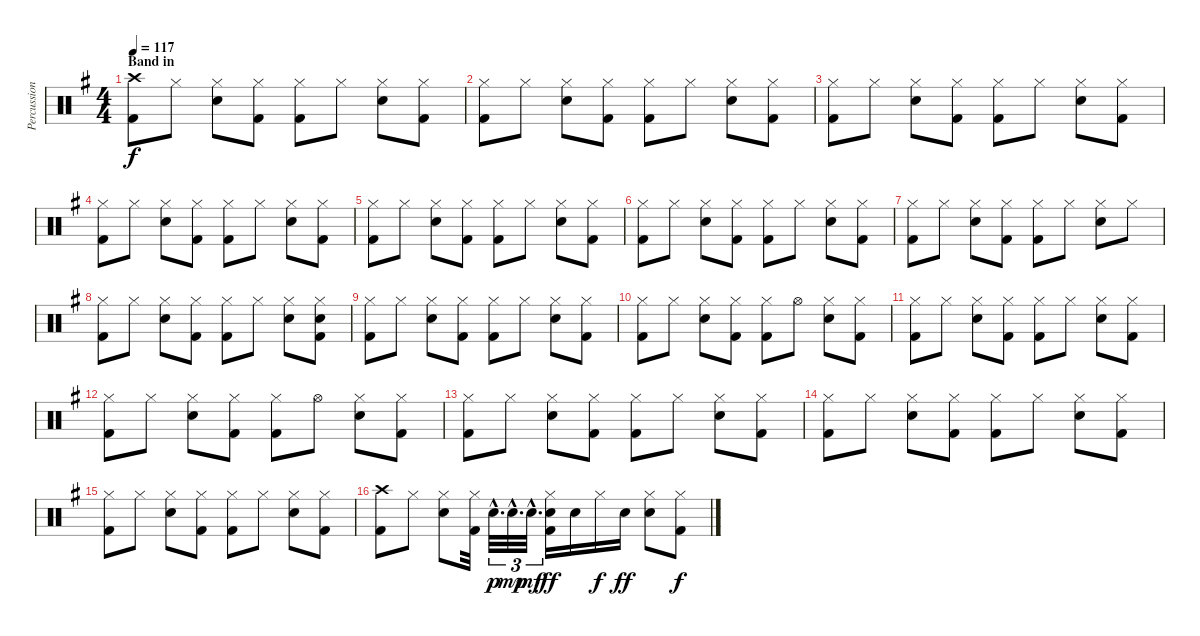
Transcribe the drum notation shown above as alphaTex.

\track ("Percussion" "Percussion") {instrument percussion}
\staff {score}
\articulation defaults
\ts (4 4)
\section ("" "Band in")
\tempo 117
\clef neutral
\ks g
("Crash high (hit)" "Kick (hit) 2").8{dy f} "Hi-Hat (closed)".8 ("Hi-Hat (closed)" "Electric Snare (hit)").8 ("Hi-Hat (closed)" "Kick (hit) 2").8 ("Hi-Hat (closed)" "Kick (hit) 2").8 "Hi-Hat (closed)".8 ("Hi-Hat (closed)" "Electric Snare (hit)").8 ("Hi-Hat (closed)" "Kick (hit) 2").8 |
("Hi-Hat (closed)" "Kick (hit) 2").8 "Hi-Hat (closed)".8 ("Hi-Hat (closed)" "Electric Snare (hit)").8 ("Hi-Hat (closed)" "Kick (hit) 2").8 ("Hi-Hat (closed)" "Kick (hit) 2").8 "Hi-Hat (closed)".8 ("Hi-Hat (closed)" "Electric Snare (hit)").8 ("Hi-Hat (closed)" "Kick (hit) 2").8 |
("Hi-Hat (closed)" "Kick (hit) 2").8 "Hi-Hat (closed)".8 ("Hi-Hat (closed)" "Electric Snare (hit)").8 ("Hi-Hat (closed)" "Kick (hit) 2").8 ("Hi-Hat (closed)" "Kick (hit) 2").8 "Hi-Hat (closed)".8 ("Hi-Hat (closed)" "Electric Snare (hit)").8 ("Hi-Hat (closed)" "Kick (hit) 2").8 |
("Hi-Hat (closed)" "Kick (hit) 2").8 "Hi-Hat (closed)".8 ("Hi-Hat (closed)" "Electric Snare (hit)").8 ("Hi-Hat (closed)" "Kick (hit) 2").8 ("Hi-Hat (closed)" "Kick (hit) 2").8 "Hi-Hat (closed)".8 ("Hi-Hat (closed)" "Electric Snare (hit)").8 ("Hi-Hat (closed)" "Kick (hit) 2").8 |
("Hi-Hat (closed)" "Kick (hit) 2").8 "Hi-Hat (closed)".8 ("Hi-Hat (closed)" "Electric Snare (hit)").8 ("Hi-Hat (closed)" "Kick (hit) 2").8 ("Hi-Hat (closed)" "Kick (hit) 2").8 "Hi-Hat (closed)".8 ("Hi-Hat (closed)" "Electric Snare (hit)").8 ("Hi-Hat (closed)" "Kick (hit) 2").8 |
("Hi-Hat (closed)" "Kick (hit) 2").8 "Hi-Hat (closed)".8 ("Hi-Hat (closed)" "Electric Snare (hit)").8 ("Hi-Hat (closed)" "Kick (hit) 2").8 ("Hi-Hat (closed)" "Kick (hit) 2").8 "Hi-Hat (closed)".8 ("Hi-Hat (closed)" "Electric Snare (hit)").8 ("Hi-Hat (closed)" "Kick (hit) 2").8 |
("Hi-Hat (closed)" "Kick (hit) 2").8 "Hi-Hat (closed)".8 ("Hi-Hat (closed)" "Electric Snare (hit)").8 ("Hi-Hat (closed)" "Kick (hit) 2").8 ("Hi-Hat (closed)" "Kick (hit) 2").8 "Hi-Hat (closed)".8 ("Hi-Hat (closed)" "Electric Snare (hit)").8 "Hi-Hat (closed)".8 |
("Hi-Hat (closed)" "Kick (hit) 2").8 "Hi-Hat (closed)".8 ("Hi-Hat (closed)" "Electric Snare (hit)").8 ("Hi-Hat (closed)" "Kick (hit) 2").8 ("Hi-Hat (closed)" "Kick (hit) 2").8 "Hi-Hat (closed)".8 ("Hi-Hat (closed)" "Electric Snare (hit)").8 ("Hi-Hat (closed)" "Electric Snare (hit)" "Kick (hit) 2").8 |
("Hi-Hat (closed)" "Kick (hit) 2").8 "Hi-Hat (closed)".8 ("Hi-Hat (closed)" "Electric Snare (hit)").8 ("Hi-Hat (closed)" "Kick (hit) 2").8 ("Hi-Hat (closed)" "Kick (hit) 2").8 "Hi-Hat (closed)".8 ("Hi-Hat (closed)" "Electric Snare (hit)").8 ("Hi-Hat (closed)" "Kick (hit) 2").8 |
("Hi-Hat (closed)" "Kick (hit) 2").8 "Hi-Hat (closed)".8 ("Hi-Hat (closed)" "Electric Snare (hit)").8 ("Hi-Hat (closed)" "Kick (hit) 2").8 ("Hi-Hat (closed)" "Kick (hit) 2").8 "Hi-Hat (open)".8 ("Hi-Hat (closed)" "Electric Snare (hit)").8 ("Hi-Hat (closed)" "Kick (hit) 2").8 |
("Hi-Hat (closed)" "Kick (hit) 2").8 "Hi-Hat (closed)".8 ("Hi-Hat (closed)" "Electric Snare (hit)").8 ("Hi-Hat (closed)" "Kick (hit) 2").8 ("Hi-Hat (closed)" "Kick (hit) 2").8 "Hi-Hat (closed)".8 ("Hi-Hat (closed)" "Electric Snare (hit)").8 ("Hi-Hat (closed)" "Kick (hit) 2").8 |
("Hi-Hat (closed)" "Kick (hit) 2").8 "Hi-Hat (closed)".8 ("Hi-Hat (closed)" "Electric Snare (hit)").8 ("Hi-Hat (closed)" "Kick (hit) 2").8 ("Hi-Hat (closed)" "Kick (hit) 2").8 "Hi-Hat (open)".8 ("Hi-Hat (closed)" "Electric Snare (hit)").8 ("Hi-Hat (closed)" "Kick (hit) 2").8 |
("Hi-Hat (closed)" "Kick (hit) 2").8 "Hi-Hat (closed)".8 ("Hi-Hat (closed)" "Electric Snare (hit)").8 ("Hi-Hat (closed)" "Kick (hit) 2").8 ("Hi-Hat (closed)" "Kick (hit) 2").8 "Hi-Hat (closed)".8 ("Hi-Hat (closed)" "Electric Snare (hit)").8 ("Hi-Hat (closed)" "Kick (hit) 2").8 |
("Hi-Hat (closed)" "Kick (hit) 2").8 "Hi-Hat (closed)".8 ("Hi-Hat (closed)" "Electric Snare (hit)").8 ("Hi-Hat (closed)" "Kick (hit) 2").8 ("Hi-Hat (closed)" "Kick (hit) 2").8 "Hi-Hat (closed)".8 ("Hi-Hat (closed)" "Electric Snare (hit)").8 ("Hi-Hat (closed)" "Kick (hit) 2").8 |
("Hi-Hat (closed)" "Kick (hit) 2").8 "Hi-Hat (closed)".8 ("Hi-Hat (closed)" "Electric Snare (hit)").8 ("Hi-Hat (closed)" "Kick (hit) 2").8 ("Hi-Hat (closed)" "Kick (hit) 2").8 "Hi-Hat (closed)".8 ("Hi-Hat (closed)" "Electric Snare (hit)").8 ("Hi-Hat (closed)" "Kick (hit) 2").8 |
("Crash high (hit)" "Kick (hit) 2").8 "Hi-Hat (closed)".8 ("Hi-Hat (closed)" "Electric Snare (hit)").8 ("Hi-Hat (closed)" "Kick (hit) 2").32 "Electric Snare (hit)"{hac}.32{d tu (3 2) dy p} "Electric Snare (hit)"{hac}.32{d tu (3 2) dy mp} "Electric Snare (hit)"{hac}.32{d tu (3 2) dy mf} ("Hi-Hat (closed)" "Electric Snare (hit)" "Kick (hit) 2").16{dy ff} "Electric Snare (hit)".16 "Hi-Hat (closed)".16{dy f} "Electric Snare (hit)".16{dy ff} ("Hi-Hat (closed)" "Electric Snare (hit)").8 ("Hi-Hat (closed)" "Kick (hit) 2").8{dy f}
